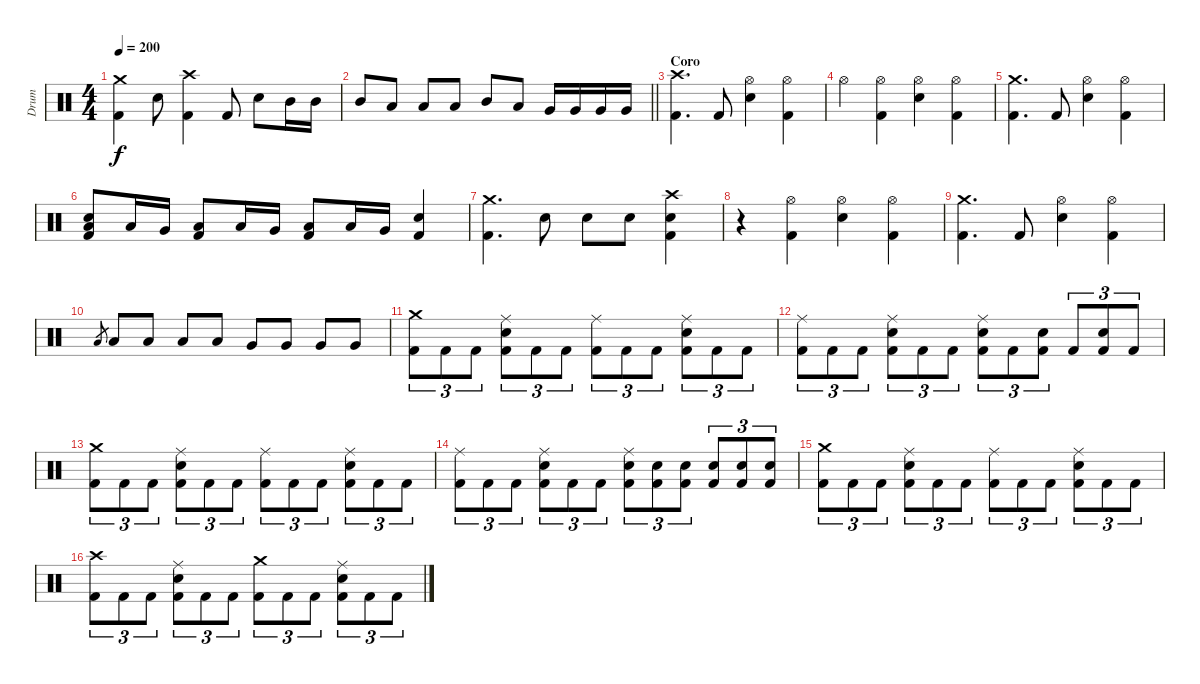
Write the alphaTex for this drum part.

\track ("Drum" "Drum") {instrument percussion}
\staff {score}
\articulation defaults
\ts (4 4)
\tempo 200
\clef neutral
\ks c
("Crash medium (hit)" "Kick (hit) 2").4{dy f} "Electric Snare (hit)".8 ("Crash high (hit)" "Kick (hit) 2").4 "Kick (hit) 2".8 "Electric Snare (hit)".8 "Mid Tom (hit)".16 "Mid Tom (hit)".16 |
\barLineRight lightlight "Mid Tom (hit)".8 "Low Tom (hit)".8 "Low Tom (hit)".8 "Low Tom (hit)".8 "Mid Tom (hit)".8 "Low Tom (hit)".8 "Very Low Tom (hit)".16 "Very Low Tom (hit)".16 "Very Low Tom (hit)".16 "Very Low Tom (hit)".16
|
\section ("" "Coro")
("Crash high (hit)" "Kick (hit) 2").4{d} "Kick (hit) 2".8 ("Hi-Hat (open)" "Electric Snare (hit)").4 ("Hi-Hat (open)" "Kick (hit) 2").4 |
"Hi-Hat (open)".4 ("Hi-Hat (open)" "Kick (hit) 2").4 ("Hi-Hat (open)" "Electric Snare (hit)").4 ("Hi-Hat (open)" "Kick (hit) 2").4 |
("Crash medium (hit)" "Kick (hit) 2").4{d} "Kick (hit) 2".8 ("Hi-Hat (open)" "Electric Snare (hit)").4 ("Hi-Hat (open)" "Kick (hit) 2").4 |
("Electric Snare (hit)" "Low Tom (hit)" "Kick (hit) 2").8 "Low Tom (hit)".16 "Very Low Tom (hit)".16 ("Low Tom (hit)" "Kick (hit) 2").8 "Low Tom (hit)".16 "Very Low Tom (hit)".16 ("Low Tom (hit)" "Kick (hit) 2").8 "Low Tom (hit)".16 "Very Low Tom (hit)".16 ("Electric Snare (hit)" "Kick (hit) 2").4 |
("Crash medium (hit)" "Kick (hit) 2").4{d} "Electric Snare (hit)".8 "Electric Snare (hit)".8 "Electric Snare (hit)".8 ("Crash high (hit)" "Electric Snare (hit)" "Kick (hit) 2").4 |
r.4 ("Hi-Hat (open)" "Kick (hit) 2").4 ("Hi-Hat (open)" "Electric Snare (hit)").4 ("Hi-Hat (open)" "Kick (hit) 2").4 |
("Crash medium (hit)" "Kick (hit) 2").4{d} "Kick (hit) 2".8 ("Hi-Hat (open)" "Electric Snare (hit)").4 ("Hi-Hat (open)" "Kick (hit) 2").4 |
"Low Tom (hit)".8{gr} "Low Tom (hit)".8 "Low Tom (hit)".8 "Low Tom (hit)".8 "Low Tom (hit)".8 "Very Low Tom (hit)".8 "Very Low Tom (hit)".8 "Very Low Tom (hit)".8 "Very Low Tom (hit)".8 |
("Crash medium (hit)" "Kick (hit) 2").8{tu (3 2)} "Kick (hit) 2".8{tu (3 2)} "Kick (hit) 2".8{tu (3 2)} ("Ride (middle)" "Electric Snare (hit)" "Kick (hit) 2").8{tu (3 2)} "Kick (hit) 2".8{tu (3 2)} "Kick (hit) 2".8{tu (3 2)} ("Ride (middle)" "Kick (hit) 2").8{tu (3 2)} "Kick (hit) 2".8{tu (3 2)} "Kick (hit) 2".8{tu (3 2)} ("Ride (middle)" "Electric Snare (hit)" "Kick (hit) 2").8{tu (3 2)} "Kick (hit) 2".8{tu (3 2)} "Kick (hit) 2".8{tu (3 2)} |
("Ride (middle)" "Kick (hit) 2").8{tu (3 2)} "Kick (hit) 2".8{tu (3 2)} "Kick (hit) 2".8{tu (3 2)} ("Ride (middle)" "Electric Snare (hit)" "Kick (hit) 2").8{tu (3 2)} "Kick (hit) 2".8{tu (3 2)} "Kick (hit) 2".8{tu (3 2)} ("Ride (middle)" "Electric Snare (hit)" "Kick (hit) 2").8{tu (3 2)} "Kick (hit) 2".8{tu (3 2)} ("Electric Snare (hit)" "Kick (hit) 2").8{tu (3 2)} "Kick (hit) 2".8{tu (3 2)} ("Electric Snare (hit)" "Kick (hit) 2").8{tu (3 2)} "Kick (hit) 2".8{tu (3 2)} |
("Crash medium (hit)" "Kick (hit) 2").8{tu (3 2)} "Kick (hit) 2".8{tu (3 2)} "Kick (hit) 2".8{tu (3 2)} ("Ride (middle)" "Electric Snare (hit)" "Kick (hit) 2").8{tu (3 2)} "Kick (hit) 2".8{tu (3 2)} "Kick (hit) 2".8{tu (3 2)} ("Ride (middle)" "Kick (hit) 2").8{tu (3 2)} "Kick (hit) 2".8{tu (3 2)} "Kick (hit) 2".8{tu (3 2)} ("Ride (middle)" "Electric Snare (hit)" "Kick (hit) 2").8{tu (3 2)} "Kick (hit) 2".8{tu (3 2)} "Kick (hit) 2".8{tu (3 2)} |
("Ride (middle)" "Kick (hit) 2").8{tu (3 2)} "Kick (hit) 2".8{tu (3 2)} "Kick (hit) 2".8{tu (3 2)} ("Ride (middle)" "Electric Snare (hit)" "Kick (hit) 2").8{tu (3 2)} "Kick (hit) 2".8{tu (3 2)} "Kick (hit) 2".8{tu (3 2)} ("Ride (middle)" "Electric Snare (hit)" "Kick (hit) 2").8{tu (3 2)} ("Electric Snare (hit)" "Kick (hit) 2").8{tu (3 2)} ("Electric Snare (hit)" "Kick (hit) 2").8{tu (3 2)} ("Electric Snare (hit)" "Kick (hit) 2").8{tu (3 2)} ("Electric Snare (hit)" "Kick (hit) 2").8{tu (3 2)} ("Electric Snare (hit)" "Kick (hit) 2").8{tu (3 2)} |
("Crash medium (hit)" "Kick (hit) 2").8{tu (3 2)} "Kick (hit) 2".8{tu (3 2)} "Kick (hit) 2".8{tu (3 2)} ("Ride (middle)" "Electric Snare (hit)" "Kick (hit) 2").8{tu (3 2)} "Kick (hit) 2".8{tu (3 2)} "Kick (hit) 2".8{tu (3 2)} ("Ride (middle)" "Kick (hit) 2").8{tu (3 2)} "Kick (hit) 2".8{tu (3 2)} "Kick (hit) 2".8{tu (3 2)} ("Ride (middle)" "Electric Snare (hit)" "Kick (hit) 2").8{tu (3 2)} "Kick (hit) 2".8{tu (3 2)} "Kick (hit) 2".8{tu (3 2)} |
("Crash high (hit)" "Kick (hit) 2").8{tu (3 2)} "Kick (hit) 2".8{tu (3 2)} "Kick (hit) 2".8{tu (3 2)} ("Ride (middle)" "Electric Snare (hit)" "Kick (hit) 2").8{tu (3 2)} "Kick (hit) 2".8{tu (3 2)} "Kick (hit) 2".8{tu (3 2)} ("Crash medium (hit)" "Kick (hit) 2").8{tu (3 2)} "Kick (hit) 2".8{tu (3 2)} "Kick (hit) 2".8{tu (3 2)} ("Ride (middle)" "Electric Snare (hit)" "Kick (hit) 2").8{tu (3 2)} "Kick (hit) 2".8{tu (3 2)} "Kick (hit) 2".8{tu (3 2)}
